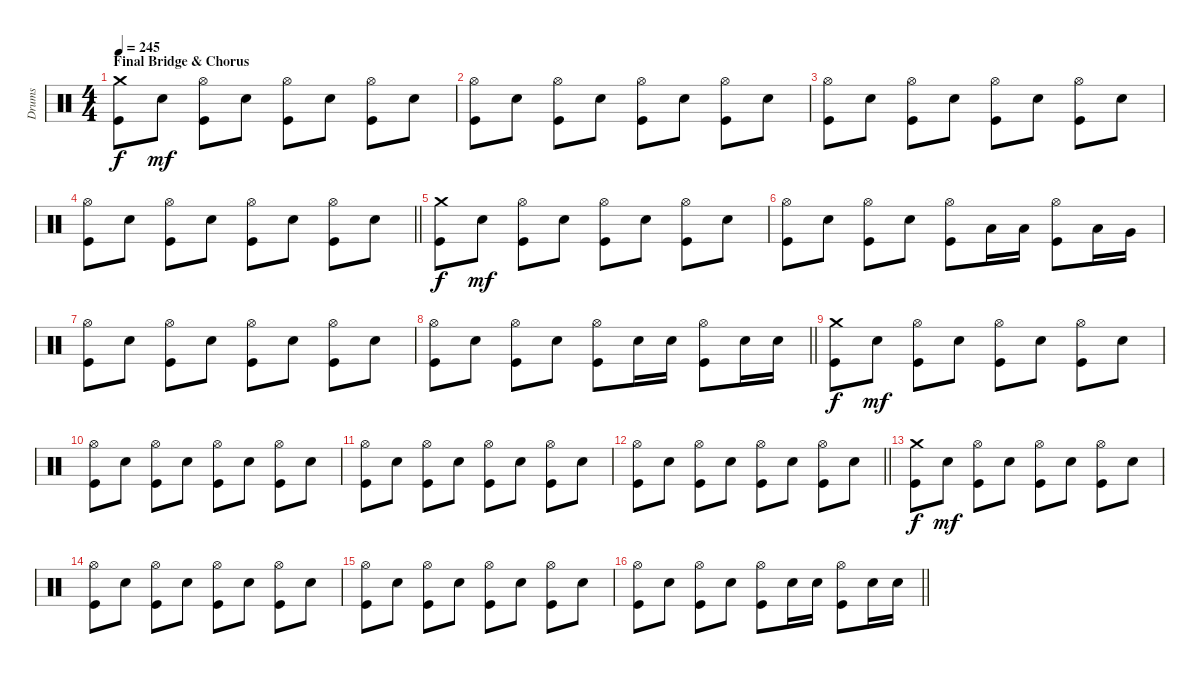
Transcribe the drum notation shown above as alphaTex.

\track ("Drums" "Drums") {instrument percussion}
\staff {score}
\articulation defaults
\ts (4 4)
\section ("" "Final Bridge & Chorus")
\tempo 245
\clef neutral
\ks c
("Crash medium (hit)" "Kick (hit)").8{dy f} "Snare (hit) 2".8{dy mf} ("Hi-Hat (open)" "Kick (hit)").8 "Snare (hit) 2".8 ("Hi-Hat (open)" "Kick (hit)").8 "Snare (hit) 2".8 ("Hi-Hat (open)" "Kick (hit)").8 "Snare (hit) 2".8 |
("Hi-Hat (open)" "Kick (hit)").8 "Snare (hit) 2".8 ("Hi-Hat (open)" "Kick (hit)").8 "Snare (hit) 2".8 ("Hi-Hat (open)" "Kick (hit)").8 "Snare (hit) 2".8 ("Hi-Hat (open)" "Kick (hit)").8 "Snare (hit) 2".8 |
("Hi-Hat (open)" "Kick (hit)").8 "Snare (hit) 2".8 ("Hi-Hat (open)" "Kick (hit)").8 "Snare (hit) 2".8 ("Hi-Hat (open)" "Kick (hit)").8 "Snare (hit) 2".8 ("Hi-Hat (open)" "Kick (hit)").8 "Snare (hit) 2".8 |
\barLineRight lightlight
("Hi-Hat (open)" "Kick (hit)").8 "Snare (hit) 2".8 ("Hi-Hat (open)" "Kick (hit)").8 "Snare (hit) 2".8 ("Hi-Hat (open)" "Kick (hit)").8 "Snare (hit) 2".8 ("Hi-Hat (open)" "Kick (hit)").8 "Snare (hit) 2".8 |
("Crash medium (hit)" "Kick (hit)").8{dy f} "Snare (hit) 2".8{dy mf} ("Hi-Hat (open)" "Kick (hit)").8 "Snare (hit) 2".8 ("Hi-Hat (open)" "Kick (hit)").8 "Snare (hit) 2".8 ("Hi-Hat (open)" "Kick (hit)").8 "Snare (hit) 2".8 |
("Hi-Hat (open)" "Kick (hit)").8 "Snare (hit) 2".8 ("Hi-Hat (open)" "Kick (hit)").8 "Snare (hit) 2".8 ("Hi-Hat (open)" "Kick (hit)").8 "Low Tom (hit)".16 "Low Tom (hit)".16 ("Hi-Hat (open)" "Kick (hit)").8 "Low Tom (hit)".16 "Very Low Tom (hit)".16 |
("Hi-Hat (open)" "Kick (hit)").8 "Snare (hit) 2".8 ("Hi-Hat (open)" "Kick (hit)").8 "Snare (hit) 2".8 ("Hi-Hat (open)" "Kick (hit)").8 "Snare (hit) 2".8 ("Hi-Hat (open)" "Kick (hit)").8 "Snare (hit) 2".8 |
\barLineRight lightlight
("Hi-Hat (open)" "Kick (hit)").8 "Snare (hit) 2".8 ("Hi-Hat (open)" "Kick (hit)").8 "Snare (hit) 2".8 ("Hi-Hat (open)" "Kick (hit)").8 "Snare (hit) 2".16 "Snare (hit) 2".16 ("Hi-Hat (open)" "Kick (hit)").8 "Snare (hit) 2".16 "Snare (hit) 2".16 |
("Crash medium (hit)" "Kick (hit)").8{dy f} "Snare (hit) 2".8{dy mf} ("Hi-Hat (open)" "Kick (hit)").8 "Snare (hit) 2".8 ("Hi-Hat (open)" "Kick (hit)").8 "Snare (hit) 2".8 ("Hi-Hat (open)" "Kick (hit)").8 "Snare (hit) 2".8 |
("Hi-Hat (open)" "Kick (hit)").8 "Snare (hit) 2".8 ("Hi-Hat (open)" "Kick (hit)").8 "Snare (hit) 2".8 ("Hi-Hat (open)" "Kick (hit)").8 "Snare (hit) 2".8 ("Hi-Hat (open)" "Kick (hit)").8 "Snare (hit) 2".8 |
("Hi-Hat (open)" "Kick (hit)").8 "Snare (hit) 2".8 ("Hi-Hat (open)" "Kick (hit)").8 "Snare (hit) 2".8 ("Hi-Hat (open)" "Kick (hit)").8 "Snare (hit) 2".8 ("Hi-Hat (open)" "Kick (hit)").8 "Snare (hit) 2".8 |
\barLineRight lightlight
("Hi-Hat (open)" "Kick (hit)").8 "Snare (hit) 2".8 ("Hi-Hat (open)" "Kick (hit)").8 "Snare (hit) 2".8 ("Hi-Hat (open)" "Kick (hit)").8 "Snare (hit) 2".8 ("Hi-Hat (open)" "Kick (hit)").8 "Snare (hit) 2".8 |
("Crash medium (hit)" "Kick (hit)").8{dy f} "Snare (hit) 2".8{dy mf} ("Hi-Hat (open)" "Kick (hit)").8 "Snare (hit) 2".8 ("Hi-Hat (open)" "Kick (hit)").8 "Snare (hit) 2".8 ("Hi-Hat (open)" "Kick (hit)").8 "Snare (hit) 2".8 |
("Hi-Hat (open)" "Kick (hit)").8 "Snare (hit) 2".8 ("Hi-Hat (open)" "Kick (hit)").8 "Snare (hit) 2".8 ("Hi-Hat (open)" "Kick (hit)").8 "Snare (hit) 2".8 ("Hi-Hat (open)" "Kick (hit)").8 "Snare (hit) 2".8 |
("Hi-Hat (open)" "Kick (hit)").8 "Snare (hit) 2".8 ("Hi-Hat (open)" "Kick (hit)").8 "Snare (hit) 2".8 ("Hi-Hat (open)" "Kick (hit)").8 "Snare (hit) 2".8 ("Hi-Hat (open)" "Kick (hit)").8 "Snare (hit) 2".8 |
\barLineRight lightlight
("Hi-Hat (open)" "Kick (hit)").8 "Snare (hit) 2".8 ("Hi-Hat (open)" "Kick (hit)").8 "Snare (hit) 2".8 ("Hi-Hat (open)" "Kick (hit)").8 "Snare (hit) 2".16 "Snare (hit) 2".16 ("Hi-Hat (open)" "Kick (hit)").8 "Snare (hit) 2".16 "Snare (hit) 2".16
